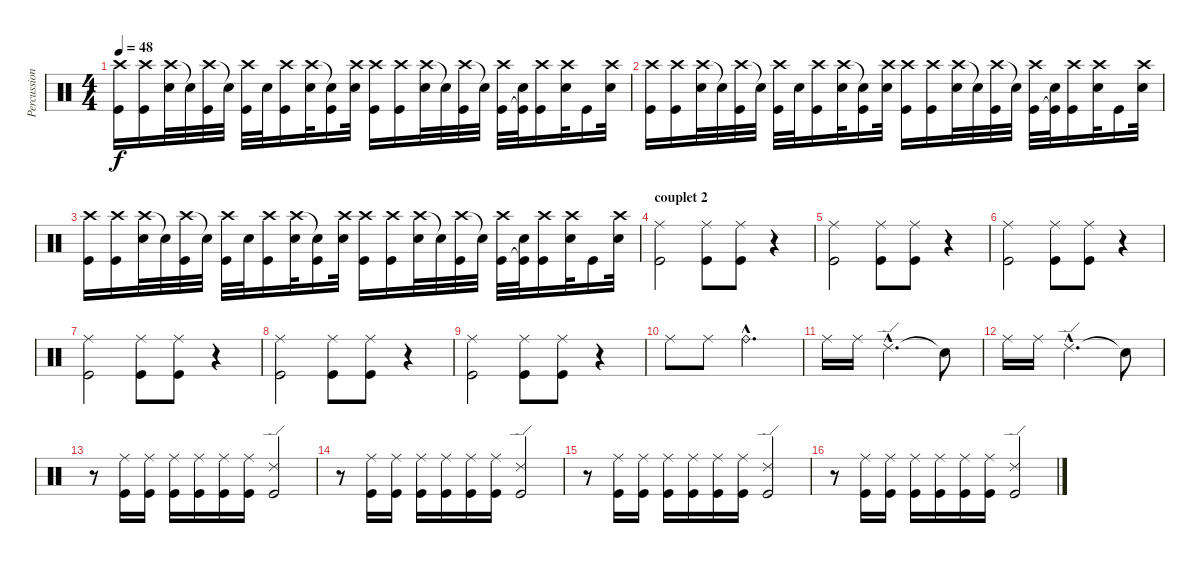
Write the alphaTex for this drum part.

\track ("Percussions" "Percussion") {instrument percussion}
\staff {score}
\articulation defaults
\ts (4 4)
\tempo 48
\clef neutral
\ks c
("Crash high (hit)" "Kick (hit)").16{dy f} ("Crash high (hit)" "Kick (hit)").16 ("Crash high (hit)" "Electric Snare (hit)").32 "Snare (hit)"{t}.32 ("Crash high (hit)" "Kick (hit)").32 "Snare (hit)"{t}.32 ("Crash high (hit)" "Kick (hit)").32 "Electric Snare (hit)".32 ("Crash high (hit)" "Kick (hit)").16 ("Crash high (hit)" "Electric Snare (hit)").32 ("Snare (hit)"{t} "Kick (hit)").16 ("Crash high (hit)" "Electric Snare (hit)").32 ("Crash high (hit)" "Kick (hit)").16 ("Crash high (hit)" "Kick (hit)").16 ("Crash high (hit)" "Electric Snare (hit)").32 "Snare (hit)"{t}.32 ("Crash high (hit)" "Kick (hit)").32 "Snare (hit)"{t}.32 ("Crash high (hit)" "Kick (hit)").32 ("Electric Snare (hit)" "Kick (hit)"{t}).32 ("Crash high (hit)" "Kick (hit)").16 ("Crash high (hit)" "Electric Snare (hit)").32 "Kick (hit)".16 ("Crash high (hit)" "Electric Snare (hit)").32 |
("Crash high (hit)" "Kick (hit)").16 ("Crash high (hit)" "Kick (hit)").16 ("Crash high (hit)" "Electric Snare (hit)").32 "Snare (hit)"{t}.32 ("Crash high (hit)" "Kick (hit)").32 "Snare (hit)"{t}.32 ("Crash high (hit)" "Kick (hit)").32 "Electric Snare (hit)".32 ("Crash high (hit)" "Kick (hit)").16 ("Crash high (hit)" "Electric Snare (hit)").32 ("Snare (hit)"{t} "Kick (hit)").16 ("Crash high (hit)" "Electric Snare (hit)").32 ("Crash high (hit)" "Kick (hit)").16 ("Crash high (hit)" "Kick (hit)").16 ("Crash high (hit)" "Electric Snare (hit)").32 "Snare (hit)"{t}.32 ("Crash high (hit)" "Kick (hit)").32 "Snare (hit)"{t}.32 ("Crash high (hit)" "Kick (hit)").32 ("Electric Snare (hit)" "Kick (hit)"{t}).32 ("Crash high (hit)" "Kick (hit)").16 ("Crash high (hit)" "Electric Snare (hit)").32 "Kick (hit)".16 ("Crash high (hit)" "Electric Snare (hit)").32 |
("Crash high (hit)" "Kick (hit)").16 ("Crash high (hit)" "Kick (hit)").16 ("Crash high (hit)" "Electric Snare (hit)").32 "Snare (hit)"{t}.32 ("Crash high (hit)" "Kick (hit)").32 "Snare (hit)"{t}.32 ("Crash high (hit)" "Kick (hit)").32 "Electric Snare (hit)".32 ("Crash high (hit)" "Kick (hit)").16 ("Crash high (hit)" "Electric Snare (hit)").32 ("Snare (hit)"{t} "Kick (hit)").16 ("Crash high (hit)" "Electric Snare (hit)").32 ("Crash high (hit)" "Kick (hit)").16 ("Crash high (hit)" "Kick (hit)").16 ("Crash high (hit)" "Electric Snare (hit)").32 "Snare (hit)"{t}.32 ("Crash high (hit)" "Kick (hit)").32 "Snare (hit)"{t}.32 ("Crash high (hit)" "Kick (hit)").32 ("Electric Snare (hit)" "Kick (hit)"{t}).32 ("Crash high (hit)" "Kick (hit)").16 ("Crash high (hit)" "Electric Snare (hit)").32 "Kick (hit)".16 ("Crash high (hit)" "Electric Snare (hit)").32 |
\section ("" "couplet 2")
("Ride (middle)" "Kick (hit)").2 ("Ride (middle)" "Kick (hit)").8 ("Ride (middle)" "Kick (hit)").8 r.4 |
("Ride (middle)" "Kick (hit)").2 ("Ride (middle)" "Kick (hit)").8 ("Ride (middle)" "Kick (hit)").8 r.4 |
("Ride (middle)" "Kick (hit)").2 ("Ride (middle)" "Kick (hit)").8 ("Ride (middle)" "Kick (hit)").8 r.4 |
("Ride (middle)" "Kick (hit)").2 ("Ride (middle)" "Kick (hit)").8 ("Ride (middle)" "Kick (hit)").8 r.4 |
("Ride (middle)" "Kick (hit)").2 ("Ride (middle)" "Kick (hit)").8 ("Ride (middle)" "Kick (hit)").8 r.4 |
("Ride (middle)" "Kick (hit)").2 ("Ride (middle)" "Kick (hit)").8 ("Ride (middle)" "Kick (hit)").8 r.4 |
"Ride (middle)".8 "Ride (middle)".8 "Ride (bell)"{hac}.2{d} |
"Ride (middle)".16 "Ride (middle)".16 "Ride (edge) 2"{hac}.2{d} "Snare (hit)"{t}.8 |
"Ride (middle)".16 "Ride (middle)".16 "Ride (edge) 2"{hac}.2{d} "Snare (hit)"{t}.8 |
r.8 ("Ride (middle)" "Kick (hit)").16 ("Ride (middle)" "Kick (hit)").16 ("Ride (middle)" "Kick (hit)").16 ("Ride (middle)" "Kick (hit)").16 ("Ride (middle)" "Kick (hit)").16 ("Ride (middle)" "Kick (hit)").16 ("Ride (edge) 2" "Kick (hit)").2 |
r.8 ("Ride (middle)" "Kick (hit)").16 ("Ride (middle)" "Kick (hit)").16 ("Ride (middle)" "Kick (hit)").16 ("Ride (middle)" "Kick (hit)").16 ("Ride (middle)" "Kick (hit)").16 ("Ride (middle)" "Kick (hit)").16 ("Ride (edge) 2" "Kick (hit)").2 |
r.8 ("Ride (middle)" "Kick (hit)").16 ("Ride (middle)" "Kick (hit)").16 ("Ride (middle)" "Kick (hit)").16 ("Ride (middle)" "Kick (hit)").16 ("Ride (middle)" "Kick (hit)").16 ("Ride (middle)" "Kick (hit)").16 ("Ride (edge) 2" "Kick (hit)").2 |
r.8 ("Ride (middle)" "Kick (hit)").16 ("Ride (middle)" "Kick (hit)").16 ("Ride (middle)" "Kick (hit)").16 ("Ride (middle)" "Kick (hit)").16 ("Ride (middle)" "Kick (hit)").16 ("Ride (middle)" "Kick (hit)").16 ("Ride (edge) 2" "Kick (hit)").2
